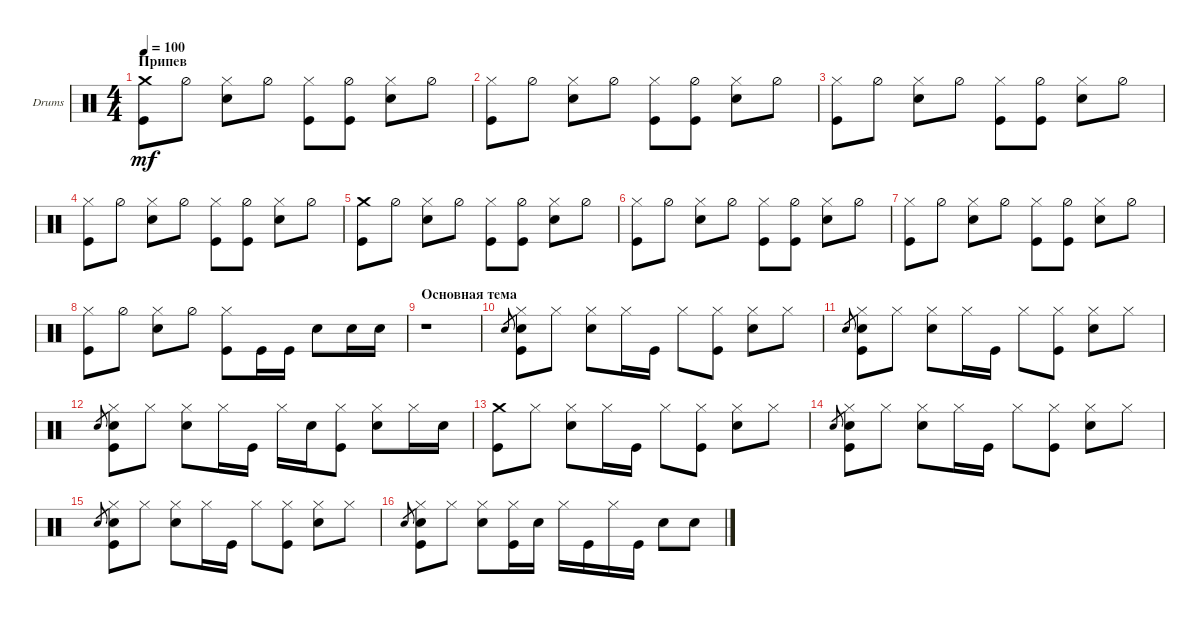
\defaultSystemsLayout 4
\bracketExtendMode groupsimilarinstruments
\firstSystemTrackNameOrientation horizontal
\otherSystemsTrackNameOrientation horizontal
\track ("Drumkit" "Drums") {instrument percussion}
\staff {score}
\articulation defaults
\ts (4 4)
\section ("" "Припев")
\tempo 100
\clef neutral
\ks c
("Crash medium (hit)" "Kick (hit)").8{dy mf} "Hi-Hat (half)".8 ("Hi-Hat (closed)" "Snare (hit) 2").8 "Hi-Hat (half)".8 ("Hi-Hat (closed)" "Kick (hit)").8 ("Hi-Hat (half)" "Kick (hit)").8 ("Hi-Hat (closed)" "Snare (hit) 2").8 "Hi-Hat (half)".8 |
("Kick (hit)" "Hi-Hat (closed)").8 "Hi-Hat (half)".8 ("Hi-Hat (closed)" "Snare (hit) 2").8 "Hi-Hat (half)".8 ("Hi-Hat (closed)" "Kick (hit)").8 ("Hi-Hat (half)" "Kick (hit)").8 ("Hi-Hat (closed)" "Snare (hit) 2").8 "Hi-Hat (half)".8 |
("Kick (hit)" "Hi-Hat (closed)").8 "Hi-Hat (half)".8 ("Hi-Hat (closed)" "Snare (hit) 2").8 "Hi-Hat (half)".8 ("Hi-Hat (closed)" "Kick (hit)").8 ("Hi-Hat (half)" "Kick (hit)").8 ("Hi-Hat (closed)" "Snare (hit) 2").8 "Hi-Hat (half)".8 |
("Kick (hit)" "Hi-Hat (closed)").8 "Hi-Hat (half)".8 ("Hi-Hat (closed)" "Snare (hit) 2").8 "Hi-Hat (half)".8 ("Hi-Hat (closed)" "Kick (hit)").8 ("Hi-Hat (half)" "Kick (hit)").8 ("Hi-Hat (closed)" "Snare (hit) 2").8 "Hi-Hat (half)".8 |
("Crash medium (hit)" "Kick (hit)").8 "Hi-Hat (half)".8 ("Hi-Hat (closed)" "Snare (hit) 2").8 "Hi-Hat (half)".8 ("Hi-Hat (closed)" "Kick (hit)").8 ("Hi-Hat (half)" "Kick (hit)").8 ("Hi-Hat (closed)" "Snare (hit) 2").8 "Hi-Hat (half)".8 |
("Kick (hit)" "Hi-Hat (closed)").8 "Hi-Hat (half)".8 ("Hi-Hat (closed)" "Snare (hit) 2").8 "Hi-Hat (half)".8 ("Hi-Hat (closed)" "Kick (hit)").8 ("Hi-Hat (half)" "Kick (hit)").8 ("Hi-Hat (closed)" "Snare (hit) 2").8 "Hi-Hat (half)".8 |
("Kick (hit)" "Hi-Hat (closed)").8 "Hi-Hat (half)".8 ("Hi-Hat (closed)" "Snare (hit) 2").8 "Hi-Hat (half)".8 ("Hi-Hat (closed)" "Kick (hit)").8 ("Hi-Hat (half)" "Kick (hit)").8 ("Hi-Hat (closed)" "Snare (hit) 2").8 "Hi-Hat (half)".8 |
("Kick (hit)" "Hi-Hat (closed)").8 "Hi-Hat (half)".8 ("Hi-Hat (closed)" "Snare (hit) 2").8 "Hi-Hat (half)".8 ("Hi-Hat (closed)" "Kick (hit)").8 "Kick (hit)".16 "Kick (hit)".16 "Snare (hit) 2".8 "Snare (hit) 2".16 "Snare (hit) 2".16 |
\section ("" "Основная тема")
r.1 |
"Snare (hit) 2".8{gr} ("Snare (hit) 2" "Hi-Hat (closed)" "Kick (hit)").8 "Hi-Hat (closed)".8 ("Hi-Hat (closed)" "Snare (hit) 2").8 "Hi-Hat (closed)".16 "Kick (hit)".16 "Hi-Hat (closed)".8 ("Hi-Hat (closed)" "Kick (hit)").8 ("Snare (hit) 2" "Hi-Hat (closed)").8 "Hi-Hat (closed)".8 |
"Snare (hit) 2".8{gr} ("Snare (hit) 2" "Hi-Hat (closed)" "Kick (hit)").8 "Hi-Hat (closed)".8 ("Hi-Hat (closed)" "Snare (hit) 2").8 "Hi-Hat (closed)".16 "Kick (hit)".16 "Hi-Hat (closed)".8 ("Hi-Hat (closed)" "Kick (hit)").8 ("Snare (hit) 2" "Hi-Hat (closed)").8 "Hi-Hat (closed)".8 |
"Snare (hit) 2".8{gr} ("Snare (hit) 2" "Hi-Hat (closed)" "Kick (hit)").8 "Hi-Hat (closed)".8 ("Snare (hit) 2" "Hi-Hat (closed)").8 "Hi-Hat (closed)".16 "Kick (hit)".16 "Hi-Hat (closed)".16 "Snare (hit) 2".16 ("Hi-Hat (closed)" "Kick (hit)").8 ("Hi-Hat (closed)" "Snare (hit) 2").8 "Hi-Hat (closed)".16 "Snare (hit) 2".16 |
("Kick (hit)" "Crash medium (hit)").8 "Hi-Hat (closed)".8 ("Snare (hit) 2" "Hi-Hat (closed)").8 "Hi-Hat (closed)".16 "Kick (hit)".16 "Hi-Hat (closed)".8 ("Kick (hit)" "Hi-Hat (closed)").8 ("Snare (hit) 2" "Hi-Hat (closed)").8 "Hi-Hat (closed)".8 |
"Snare (hit) 2".8{gr} ("Snare (hit) 2" "Hi-Hat (closed)" "Kick (hit)").8 "Hi-Hat (closed)".8 ("Hi-Hat (closed)" "Snare (hit) 2").8 "Hi-Hat (closed)".16 "Kick (hit)".16 "Hi-Hat (closed)".8 ("Hi-Hat (closed)" "Kick (hit)").8 ("Snare (hit) 2" "Hi-Hat (closed)").8 "Hi-Hat (closed)".8 |
"Snare (hit) 2".8{gr} ("Snare (hit) 2" "Hi-Hat (closed)" "Kick (hit)").8 "Hi-Hat (closed)".8 ("Hi-Hat (closed)" "Snare (hit) 2").8 "Hi-Hat (closed)".16 "Kick (hit)".16 "Hi-Hat (closed)".8 ("Hi-Hat (closed)" "Kick (hit)").8 ("Snare (hit) 2" "Hi-Hat (closed)").8 "Hi-Hat (closed)".8 |
"Snare (hit) 2".8{gr} ("Snare (hit) 2" "Hi-Hat (closed)" "Kick (hit)").8 "Hi-Hat (closed)".8 ("Hi-Hat (closed)" "Snare (hit) 2").8 ("Hi-Hat (closed)" "Kick (hit)").16 "Snare (hit) 2".16 "Hi-Hat (closed)".16 "Kick (hit)".16 "Hi-Hat (closed)".16 "Kick (hit)".16 "Snare (hit) 2".8 "Snare (hit) 2".8
